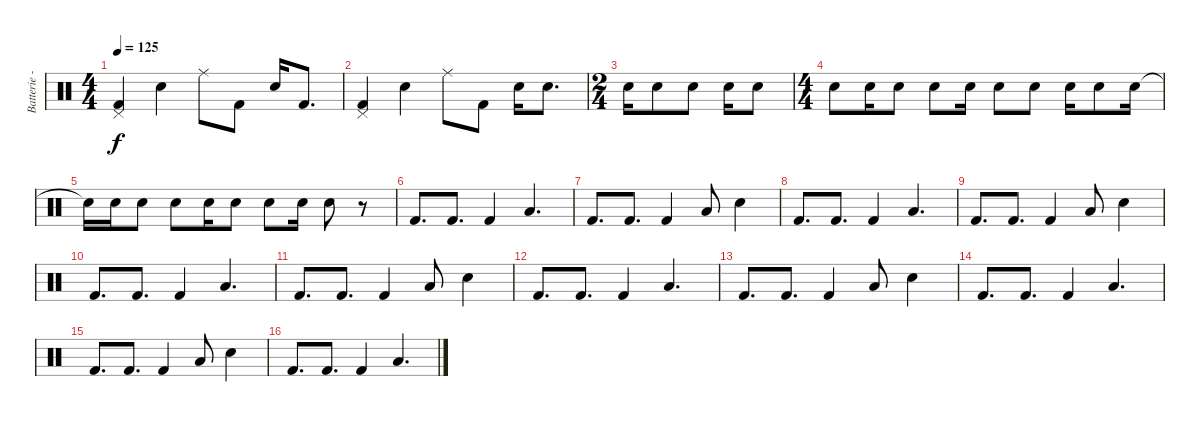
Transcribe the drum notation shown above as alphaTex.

\track ("Batterie - Shane Gaalaas" "Batterie -") {instrument percussion}
\staff {score}
\articulation defaults
\ts (4 4)
\tempo 125
\clef neutral
\ks c
("Pedal Hi-Hat (hit)" "Kick (hit) 2").4{dy f} "Electric Snare (hit)".4 "Ride (middle)".8 "Kick (hit) 2".8 "Electric Snare (hit)".16 "Kick (hit) 2".8{d} |
("Pedal Hi-Hat (hit)" "Kick (hit) 2").4 "Electric Snare (hit)".4 "Ride (middle)".8 "Kick (hit) 2".8 "Electric Snare (hit)".16 "Electric Snare (hit)".8{d} |
\ts (2 4)
"Electric Snare (hit)".16 "Electric Snare (hit)".8 "Electric Snare (hit)".8 "Electric Snare (hit)".16 "Electric Snare (hit)".8 |
\ts (4 4)
"Electric Snare (hit)".8 "Electric Snare (hit)".16 "Electric Snare (hit)".8 "Electric Snare (hit)".8 "Electric Snare (hit)".16 "Electric Snare (hit)".8 "Electric Snare (hit)".8 "Electric Snare (hit)".16 "Electric Snare (hit)".8 "Electric Snare (hit)".16 |
"Snare (hit)"{t}.16 "Electric Snare (hit)".16 "Electric Snare (hit)".8 "Electric Snare (hit)".8 "Electric Snare (hit)".16 "Electric Snare (hit)".8 "Electric Snare (hit)".8 "Electric Snare (hit)".16 "Electric Snare (hit)".8 r.8 |
"Kick (hit) 2".8{d} "Kick (hit) 2".8{d} "Kick (hit) 2".4 "Low Tom (hit)".4{d} |
"Kick (hit) 2".8{d} "Kick (hit) 2".8{d} "Kick (hit) 2".4 "Low Tom (hit)".8 "Electric Snare (hit)".4 |
"Kick (hit) 2".8{d} "Kick (hit) 2".8{d} "Kick (hit) 2".4 "Low Tom (hit)".4{d} |
"Kick (hit) 2".8{d} "Kick (hit) 2".8{d} "Kick (hit) 2".4 "Low Tom (hit)".8 "Electric Snare (hit)".4 |
"Kick (hit) 2".8{d} "Kick (hit) 2".8{d} "Kick (hit) 2".4 "Low Tom (hit)".4{d} |
"Kick (hit) 2".8{d} "Kick (hit) 2".8{d} "Kick (hit) 2".4 "Low Tom (hit)".8 "Electric Snare (hit)".4 |
"Kick (hit) 2".8{d} "Kick (hit) 2".8{d} "Kick (hit) 2".4 "Low Tom (hit)".4{d} |
"Kick (hit) 2".8{d} "Kick (hit) 2".8{d} "Kick (hit) 2".4 "Low Tom (hit)".8 "Electric Snare (hit)".4 |
"Kick (hit) 2".8{d} "Kick (hit) 2".8{d} "Kick (hit) 2".4 "Low Tom (hit)".4{d} |
"Kick (hit) 2".8{d} "Kick (hit) 2".8{d} "Kick (hit) 2".4 "Low Tom (hit)".8 "Electric Snare (hit)".4 |
"Kick (hit) 2".8{d} "Kick (hit) 2".8{d} "Kick (hit) 2".4 "Low Tom (hit)".4{d}
